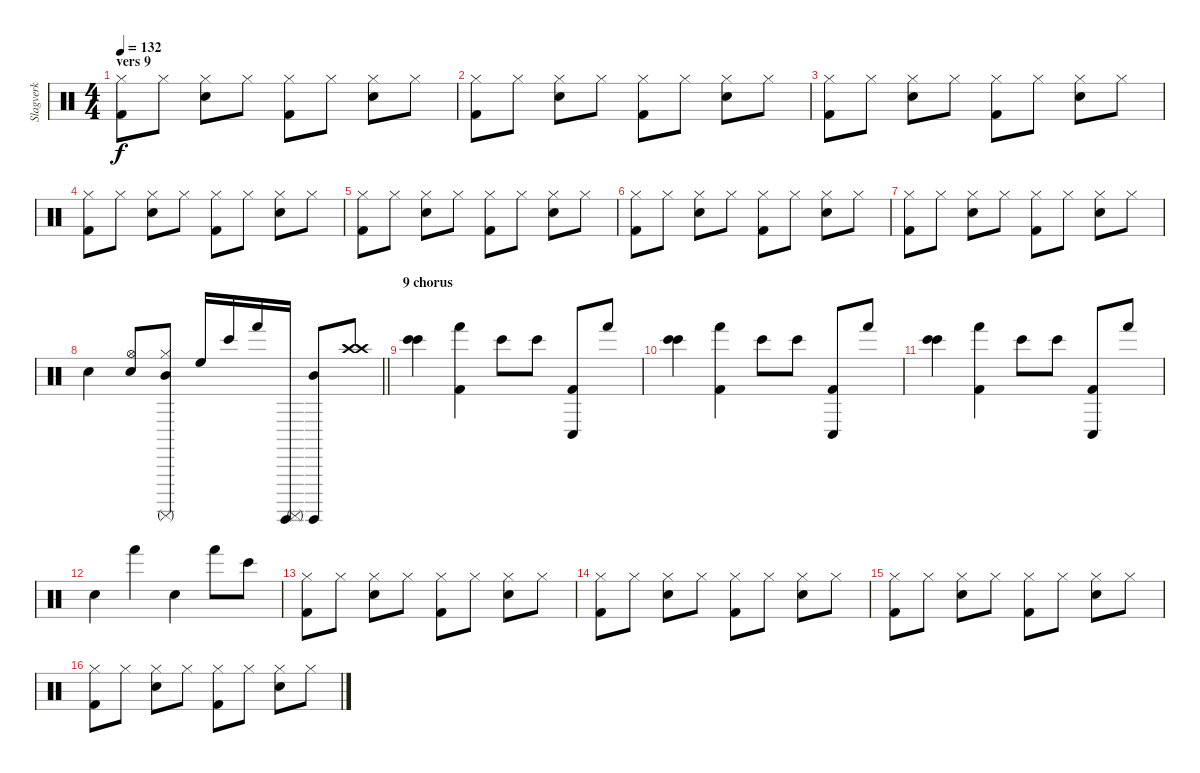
\track ("Slagverk" "Slagverk") {instrument percussion}
\staff {score}
\articulation defaults
\ts (4 4)
\section ("" "vers 9")
\tempo 132
\clef neutral
\ks c
("Kick (hit) 2" "Hi-Hat (closed)").8{dy f} "Hi-Hat (closed)".8 ("Snare (hit) 2" "Hi-Hat (closed)").8 "Hi-Hat (closed)".8 ("Kick (hit) 2" "Hi-Hat (closed)").8 "Hi-Hat (closed)".8 ("Snare (hit) 2" "Hi-Hat (closed)").8 "Hi-Hat (closed)".8 |
("Kick (hit) 2" "Hi-Hat (closed)").8 "Hi-Hat (closed)".8 ("Snare (hit) 2" "Hi-Hat (closed)").8 "Hi-Hat (closed)".8 ("Kick (hit) 2" "Hi-Hat (closed)").8 "Hi-Hat (closed)".8 ("Snare (hit) 2" "Hi-Hat (closed)").8 "Hi-Hat (closed)".8 |
("Kick (hit) 2" "Hi-Hat (closed)").8 "Hi-Hat (closed)".8 ("Snare (hit) 2" "Hi-Hat (closed)").8 "Hi-Hat (closed)".8 ("Kick (hit) 2" "Hi-Hat (closed)").8 "Hi-Hat (closed)".8 ("Snare (hit) 2" "Hi-Hat (closed)").8 "Hi-Hat (closed)".8 |
("Kick (hit) 2" "Hi-Hat (closed)").8 "Hi-Hat (closed)".8 ("Snare (hit) 2" "Hi-Hat (closed)").8 "Hi-Hat (closed)".8 ("Kick (hit) 2" "Hi-Hat (closed)").8 "Hi-Hat (closed)".8 ("Snare (hit) 2" "Hi-Hat (closed)").8 "Hi-Hat (closed)".8 |
("Kick (hit) 2" "Hi-Hat (closed)").8 "Hi-Hat (closed)".8 ("Snare (hit) 2" "Hi-Hat (closed)").8 "Hi-Hat (closed)".8 ("Kick (hit) 2" "Hi-Hat (closed)").8 "Hi-Hat (closed)".8 ("Snare (hit) 2" "Hi-Hat (closed)").8 "Hi-Hat (closed)".8 |
("Kick (hit) 2" "Hi-Hat (closed)").8 "Hi-Hat (closed)".8 ("Snare (hit) 2" "Hi-Hat (closed)").8 "Hi-Hat (closed)".8 ("Kick (hit) 2" "Hi-Hat (closed)").8 "Hi-Hat (closed)".8 ("Snare (hit) 2" "Hi-Hat (closed)").8 "Hi-Hat (closed)".8 |
("Kick (hit) 2" "Hi-Hat (closed)").8 "Hi-Hat (closed)".8 ("Snare (hit) 2" "Hi-Hat (closed)").8 "Hi-Hat (closed)".8 ("Kick (hit) 2" "Hi-Hat (closed)").8 "Hi-Hat (closed)".8 ("Snare (hit) 2" "Hi-Hat (closed)").8 "Hi-Hat (closed)".8 |
\barLineRight lightlight "Snare (hit) 2".4
("Electric Snare (hit)" "Hi-Hat (open)").8 ("Mid Tom (hit)" "Surdo (mute)" "Hi-Hat (closed)").8 "High Floor Tom (hit)".16 "Bongo High (hit)".16 "Hand (hit)".16 ("Surdo (mute)" "Surdo (hit)").16 ("Mid Tom (hit)" "Surdo (hit)").8 ("Crash high (hit)" "Crash high (hit)").8 |
\section ("" "9 chorus")
("Bongo High (hit)" "Bongo High (hit)").4 ("Kick (hit) 2" "Hand (hit)").4 "Bongo High (hit)".8 "Bongo High (hit)".8 ("Kick (hit) 2" "Conga low (hit)").8 "Hand (hit)".8 |
("Bongo High (hit)" "Bongo High (hit)").4 ("Kick (hit) 2" "Hand (hit)").4 "Bongo High (hit)".8 "Bongo High (hit)".8 ("Kick (hit) 2" "Conga low (hit)").8 "Hand (hit)".8 |
("Bongo High (hit)" "Bongo High (hit)").4 ("Kick (hit) 2" "Hand (hit)").4 "Bongo High (hit)".8 "Bongo High (hit)".8 ("Kick (hit) 2" "Conga low (hit)").8 "Hand (hit)".8 |
"Snare (hit) 2".4 "Hand (hit)".4 "Snare (hit) 2".4 "Hand (hit)".8 "Bongo High (hit)".8 |
("Kick (hit) 2" "Hi-Hat (closed)").8 "Hi-Hat (closed)".8 ("Snare (hit) 2" "Hi-Hat (closed)").8 "Hi-Hat (closed)".8 ("Kick (hit) 2" "Hi-Hat (closed)").8 "Hi-Hat (closed)".8 ("Snare (hit) 2" "Hi-Hat (closed)").8 "Hi-Hat (closed)".8 |
("Kick (hit) 2" "Hi-Hat (closed)").8 "Hi-Hat (closed)".8 ("Snare (hit) 2" "Hi-Hat (closed)").8 "Hi-Hat (closed)".8 ("Kick (hit) 2" "Hi-Hat (closed)").8 "Hi-Hat (closed)".8 ("Snare (hit) 2" "Hi-Hat (closed)").8 "Hi-Hat (closed)".8 |
("Kick (hit) 2" "Hi-Hat (closed)").8 "Hi-Hat (closed)".8 ("Snare (hit) 2" "Hi-Hat (closed)").8 "Hi-Hat (closed)".8 ("Kick (hit) 2" "Hi-Hat (closed)").8 "Hi-Hat (closed)".8 ("Snare (hit) 2" "Hi-Hat (closed)").8 "Hi-Hat (closed)".8 |
("Kick (hit) 2" "Hi-Hat (closed)").8 "Hi-Hat (closed)".8 ("Snare (hit) 2" "Hi-Hat (closed)").8 "Hi-Hat (closed)".8 ("Kick (hit) 2" "Hi-Hat (closed)").8 "Hi-Hat (closed)".8 ("Snare (hit) 2" "Hi-Hat (closed)").8 "Hi-Hat (closed)".8
